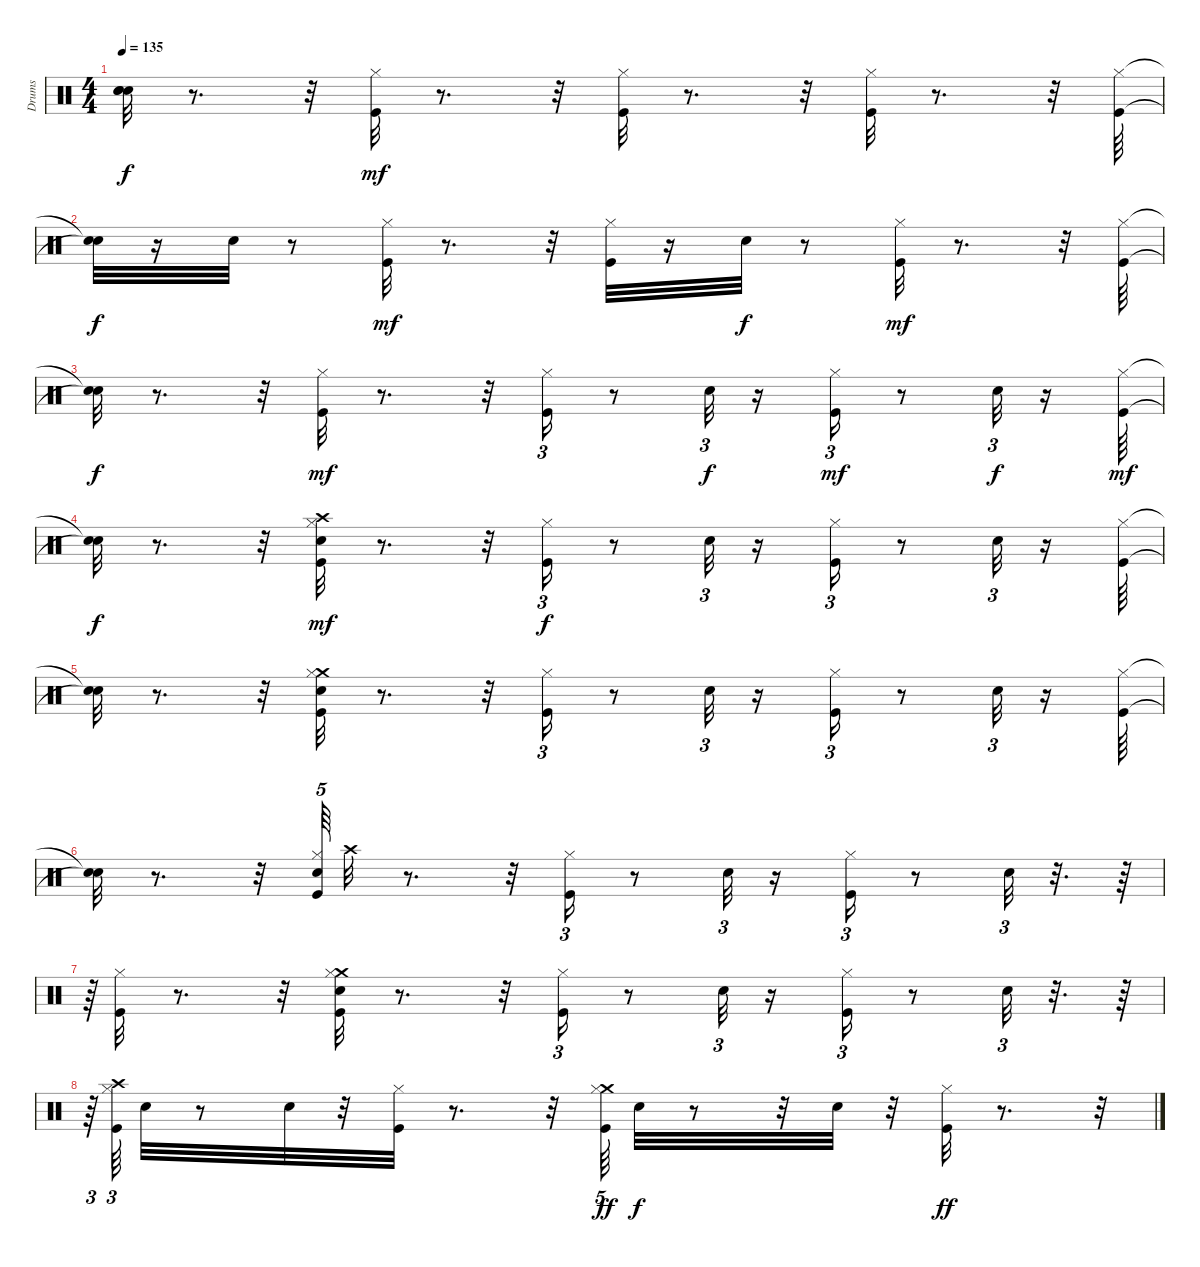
\track ("Drums" "Drums") {instrument percussion}
\staff {score}
\articulation defaults
\ts (4 4)
\tempo 135
\clef neutral
\ks c
("Snare (hit)"{t} "Snare (hit)"{t} "Snare (hit)"{t}).32{dy f} r.8{d} r.32 ("Kick (hit)" "Hi-Hat (closed)").32{dy mf} r.8{d} r.32 ("Kick (hit)" "Hi-Hat (closed)").32 r.8{d} r.32 ("Kick (hit)" "Hi-Hat (closed)").32 r.8{d} r.32 ("Kick (hit)" "Hi-Hat (closed)").64 |
("Snare (hit)"{t} "Snare (hit)"{t}).32{dy f} r.16 "Electric Snare (hit)".32 r.8 ("Kick (hit)" "Hi-Hat (closed)").32{dy mf} r.8{d} r.32 ("Kick (hit)" "Hi-Hat (closed)").32 r.16 "Electric Snare (hit)".32{dy f} r.8 ("Kick (hit)" "Hi-Hat (closed)").32{dy mf} r.8{d} r.32 ("Kick (hit)" "Hi-Hat (closed)").64 |
("Snare (hit)"{t} "Snare (hit)"{t}).32{dy f} r.8{d} r.32 ("Kick (hit)" "Hi-Hat (closed)").32{dy mf} r.8{d} r.32 ("Kick (hit)" "Hi-Hat (closed)").16{tu (3 2)} r.8 "Electric Snare (hit)".32{tu (3 2) dy f} r.16 ("Kick (hit)" "Hi-Hat (closed)").16{tu (3 2) dy mf} r.8 "Electric Snare (hit)".32{tu (3 2) dy f} r.16 ("Kick (hit)" "Hi-Hat (closed)").64{dy mf} |
("Snare (hit)"{t} "Snare (hit)"{t}).32{dy f} r.8{d} r.32 ("Electric Snare (hit)" "Kick (hit)" "Hi-Hat (closed)" "Crash high (hit)").32{dy mf} r.8{d} r.32 ("Kick (hit)" "Hi-Hat (closed)").16{tu (3 2) dy f} r.8 "Electric Snare (hit)".32{tu (3 2)} r.16 ("Kick (hit)" "Hi-Hat (closed)").16{tu (3 2)} r.8 "Electric Snare (hit)".32{tu (3 2)} r.16 ("Kick (hit)" "Hi-Hat (closed)").64 |
("Snare (hit)"{t} "Snare (hit)"{t}).32 r.8{d} r.32 ("Electric Snare (hit)" "Kick (hit)" "Crash medium (hit)" "Hi-Hat (closed)").32 r.8{d} r.32 ("Kick (hit)" "Hi-Hat (closed)").16{tu (3 2)} r.8 "Electric Snare (hit)".32{tu (3 2)} r.16 ("Kick (hit)" "Hi-Hat (closed)").16{tu (3 2)} r.8 "Electric Snare (hit)".32{tu (3 2)} r.16 ("Kick (hit)" "Hi-Hat (closed)").64 |
("Snare (hit)"{t} "Snare (hit)"{t}).32 r.8{d} r.32 ("Electric Snare (hit)" "Kick (hit)" "Hi-Hat (closed)").64{tu (5 4)} "Crash high (hit)".32 r.8{d} r.32 ("Kick (hit)" "Hi-Hat (closed)").16{tu (3 2)} r.8 "Electric Snare (hit)".32{tu (3 2)} r.16 ("Kick (hit)" "Hi-Hat (closed)").16{tu (3 2)} r.8 "Electric Snare (hit)".32{tu (3 2)} r.32{d} r.64 |
r.64{tu (3 2)} ("Kick (hit)" "Hi-Hat (closed)").32 r.8{d} r.32 ("Electric Snare (hit)" "Kick (hit)" "Crash medium (hit)" "Hi-Hat (closed)").32 r.8{d} r.32 ("Kick (hit)" "Hi-Hat (closed)").16{tu (3 2)} r.8 "Electric Snare (hit)".32{tu (3 2)} r.16 ("Kick (hit)" "Hi-Hat (closed)").16{tu (3 2)} r.8 "Electric Snare (hit)".32{tu (3 2)} r.32{d} r.64 |
r.64{tu (3 2)} ("Kick (hit)" "Crash high (hit)" "Hi-Hat (closed)").64{tu (3 2)} "Electric Snare (hit)".32 r.8 "Electric Snare (hit)".32 r.32 ("Kick (hit)" "Hi-Hat (closed)").32 r.8{d} r.32 ("Kick (hit)" "Crash medium (hit)" "Hi-Hat (closed)").64{tu (5 4) dy ff} "Electric Snare (hit)".32{dy f} r.8 r.32 "Electric Snare (hit)".32 r.32 ("Kick (hit)" "Hi-Hat (closed)").32{dy ff} r.8{d} r.32
